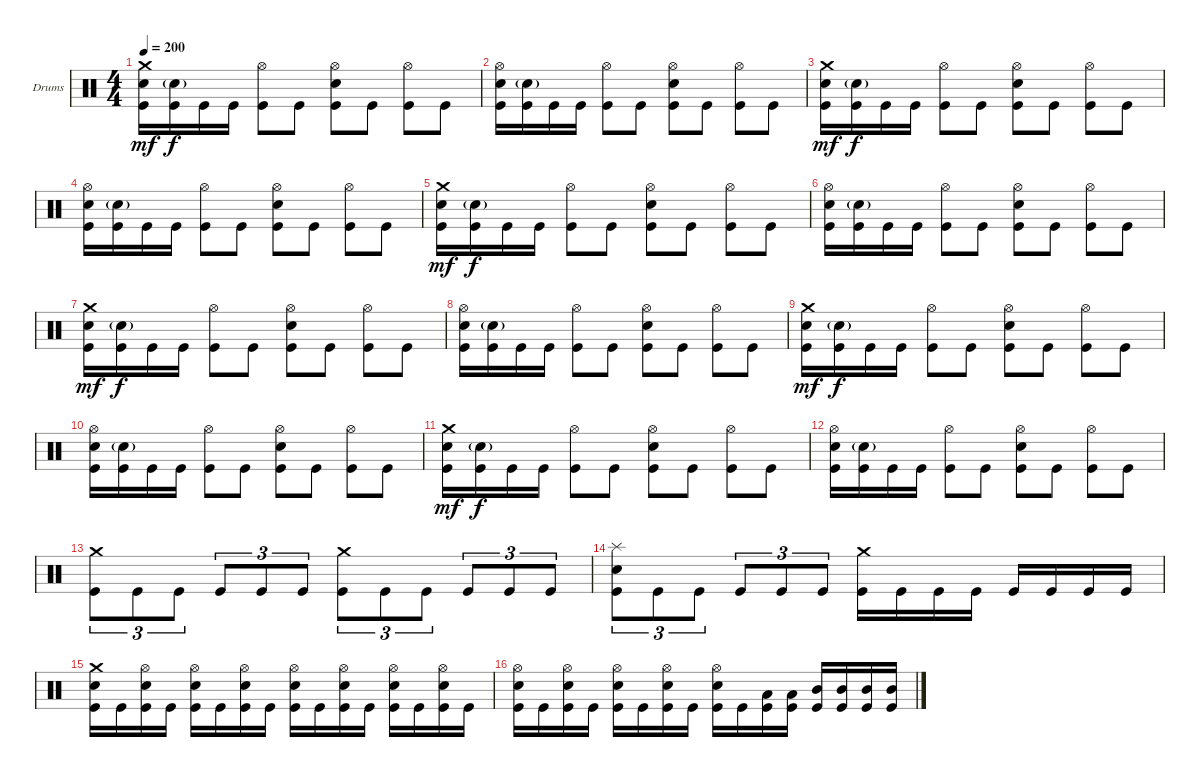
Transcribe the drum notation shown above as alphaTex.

\bracketExtendMode groupsimilarinstruments
\firstSystemTrackNameOrientation horizontal
\otherSystemsTrackNameOrientation horizontal
\track ("Drumkit" "Drums") {instrument percussion}
\staff {score}
\articulation defaults
\ts (4 4)
\tempo 200
\clef neutral
\ks c
("Crash medium (hit)" "Snare (hit) 2" "Kick (hit)").16{dy mf} ("Snare (hit) 2"{g} "Kick (hit)").16{dy f} "Kick (hit)".16 "Kick (hit)".16 ("Hi-Hat (open)" "Kick (hit)").8 "Kick (hit)".8 ("Hi-Hat (open)" "Snare (hit) 2" "Kick (hit)").8 "Kick (hit)".8 ("Hi-Hat (open)" "Kick (hit)").8 "Kick (hit)".8 |
("Hi-Hat (open)" "Snare (hit) 2" "Kick (hit)").16 ("Snare (hit) 2"{g} "Kick (hit)").16 "Kick (hit)".16 "Kick (hit)".16 ("Hi-Hat (open)" "Kick (hit)").8 "Kick (hit)".8 ("Hi-Hat (open)" "Snare (hit) 2" "Kick (hit)").8 "Kick (hit)".8 ("Hi-Hat (open)" "Kick (hit)").8 "Kick (hit)".8 |
("Crash medium (hit)" "Snare (hit) 2" "Kick (hit)").16{dy mf} ("Snare (hit) 2"{g} "Kick (hit)").16{dy f} "Kick (hit)".16 "Kick (hit)".16 ("Hi-Hat (open)" "Kick (hit)").8 "Kick (hit)".8 ("Hi-Hat (open)" "Snare (hit) 2" "Kick (hit)").8 "Kick (hit)".8 ("Hi-Hat (open)" "Kick (hit)").8 "Kick (hit)".8 |
("Hi-Hat (open)" "Snare (hit) 2" "Kick (hit)").16 ("Snare (hit) 2"{g} "Kick (hit)").16 "Kick (hit)".16 "Kick (hit)".16 ("Hi-Hat (open)" "Kick (hit)").8 "Kick (hit)".8 ("Hi-Hat (open)" "Snare (hit) 2" "Kick (hit)").8 "Kick (hit)".8 ("Hi-Hat (open)" "Kick (hit)").8 "Kick (hit)".8 |
("Crash medium (hit)" "Snare (hit) 2" "Kick (hit)").16{dy mf} ("Snare (hit) 2"{g} "Kick (hit)").16{dy f} "Kick (hit)".16 "Kick (hit)".16 ("Hi-Hat (open)" "Kick (hit)").8 "Kick (hit)".8 ("Hi-Hat (open)" "Snare (hit) 2" "Kick (hit)").8 "Kick (hit)".8 ("Hi-Hat (open)" "Kick (hit)").8 "Kick (hit)".8 |
("Hi-Hat (open)" "Snare (hit) 2" "Kick (hit)").16 ("Snare (hit) 2"{g} "Kick (hit)").16 "Kick (hit)".16 "Kick (hit)".16 ("Hi-Hat (open)" "Kick (hit)").8 "Kick (hit)".8 ("Hi-Hat (open)" "Snare (hit) 2" "Kick (hit)").8 "Kick (hit)".8 ("Hi-Hat (open)" "Kick (hit)").8 "Kick (hit)".8 |
("Crash medium (hit)" "Snare (hit) 2" "Kick (hit)").16{dy mf} ("Snare (hit) 2"{g} "Kick (hit)").16{dy f} "Kick (hit)".16 "Kick (hit)".16 ("Hi-Hat (open)" "Kick (hit)").8 "Kick (hit)".8 ("Hi-Hat (open)" "Snare (hit) 2" "Kick (hit)").8 "Kick (hit)".8 ("Hi-Hat (open)" "Kick (hit)").8 "Kick (hit)".8 |
("Hi-Hat (open)" "Snare (hit) 2" "Kick (hit)").16 ("Snare (hit) 2"{g} "Kick (hit)").16 "Kick (hit)".16 "Kick (hit)".16 ("Hi-Hat (open)" "Kick (hit)").8 "Kick (hit)".8 ("Hi-Hat (open)" "Snare (hit) 2" "Kick (hit)").8 "Kick (hit)".8 ("Hi-Hat (open)" "Kick (hit)").8 "Kick (hit)".8 |
("Crash medium (hit)" "Snare (hit) 2" "Kick (hit)").16{dy mf} ("Snare (hit) 2"{g} "Kick (hit)").16{dy f} "Kick (hit)".16 "Kick (hit)".16 ("Hi-Hat (open)" "Kick (hit)").8 "Kick (hit)".8 ("Hi-Hat (open)" "Snare (hit) 2" "Kick (hit)").8 "Kick (hit)".8 ("Hi-Hat (open)" "Kick (hit)").8 "Kick (hit)".8 |
("Hi-Hat (open)" "Snare (hit) 2" "Kick (hit)").16 ("Snare (hit) 2"{g} "Kick (hit)").16 "Kick (hit)".16 "Kick (hit)".16 ("Hi-Hat (open)" "Kick (hit)").8 "Kick (hit)".8 ("Hi-Hat (open)" "Snare (hit) 2" "Kick (hit)").8 "Kick (hit)".8 ("Hi-Hat (open)" "Kick (hit)").8 "Kick (hit)".8 |
("Crash medium (hit)" "Snare (hit) 2" "Kick (hit)").16{dy mf} ("Snare (hit) 2"{g} "Kick (hit)").16{dy f} "Kick (hit)".16 "Kick (hit)".16 ("Hi-Hat (open)" "Kick (hit)").8 "Kick (hit)".8 ("Hi-Hat (open)" "Snare (hit) 2" "Kick (hit)").8 "Kick (hit)".8 ("Hi-Hat (open)" "Kick (hit)").8 "Kick (hit)".8 |
("Hi-Hat (open)" "Snare (hit) 2" "Kick (hit)").16 ("Snare (hit) 2"{g} "Kick (hit)").16 "Kick (hit)".16 "Kick (hit)".16 ("Hi-Hat (open)" "Kick (hit)").8 "Kick (hit)".8 ("Hi-Hat (open)" "Snare (hit) 2" "Kick (hit)").8 "Kick (hit)".8 ("Hi-Hat (open)" "Kick (hit)").8 "Kick (hit)".8 |
("Crash medium (hit)" "Kick (hit)").8{tu (3 2)} "Kick (hit)".8{tu (3 2)} "Kick (hit)".8{tu (3 2)} "Kick (hit)".8{tu (3 2)} "Kick (hit)".8{tu (3 2)} "Kick (hit)".8{tu (3 2)} ("Crash medium (hit)" "Kick (hit)").8{tu (3 2)} "Kick (hit)".8{tu (3 2)} "Kick (hit)".8{tu (3 2)} "Kick (hit)".8{tu (3 2)} "Kick (hit)".8{tu (3 2)} "Kick (hit)".8{tu (3 2)} |
("Splash (hit)" "Snare (hit) 2" "Kick (hit)").8{tu (3 2)} "Kick (hit)".8{tu (3 2)} "Kick (hit)".8{tu (3 2)} "Kick (hit)".8{tu (3 2)} "Kick (hit)".8{tu (3 2)} "Kick (hit)".8{tu (3 2)} ("Crash medium (hit)" "Kick (hit)").16 "Kick (hit)".16 "Kick (hit)".16 "Kick (hit)".16 "Kick (hit)".16 "Kick (hit)".16 "Kick (hit)".16 "Kick (hit)".16 |
("Crash medium (hit)" "Snare (hit) 2" "Kick (hit)").16 "Kick (hit)".16 ("Hi-Hat (open)" "Snare (hit) 2" "Kick (hit)").16 "Kick (hit)".16 ("Hi-Hat (open)" "Snare (hit) 2" "Kick (hit)").16 "Kick (hit)".16 ("Hi-Hat (open)" "Snare (hit) 2" "Kick (hit)").16 "Kick (hit)".16 ("Hi-Hat (open)" "Snare (hit) 2" "Kick (hit)").16 "Kick (hit)".16 ("Hi-Hat (open)" "Snare (hit) 2" "Kick (hit)").16 "Kick (hit)".16 ("Hi-Hat (open)" "Snare (hit) 2" "Kick (hit)").16 "Kick (hit)".16 ("Hi-Hat (open)" "Snare (hit) 2" "Kick (hit)").16 "Kick (hit)".16 |
("Hi-Hat (open)" "Snare (hit) 2" "Kick (hit)").16 "Kick (hit)".16 ("Hi-Hat (open)" "Snare (hit) 2" "Kick (hit)").16 "Kick (hit)".16 ("Hi-Hat (open)" "Snare (hit) 2" "Kick (hit)").16 "Kick (hit)".16 ("Hi-Hat (open)" "Snare (hit) 2" "Kick (hit)").16 "Kick (hit)".16 ("Hi-Hat (open)" "Snare (hit) 2" "Kick (hit)").16 "Kick (hit)".16 ("Low Tom (hit)" "Kick (hit)").16 ("Low Tom (hit)" "Kick (hit)").16 ("Mid Tom (hit)" "Kick (hit)").16 ("Mid Tom (hit)" "Kick (hit)").16 ("Mid Tom (hit)" "Kick (hit)").16 ("Mid Tom (hit)" "Kick (hit)").16
